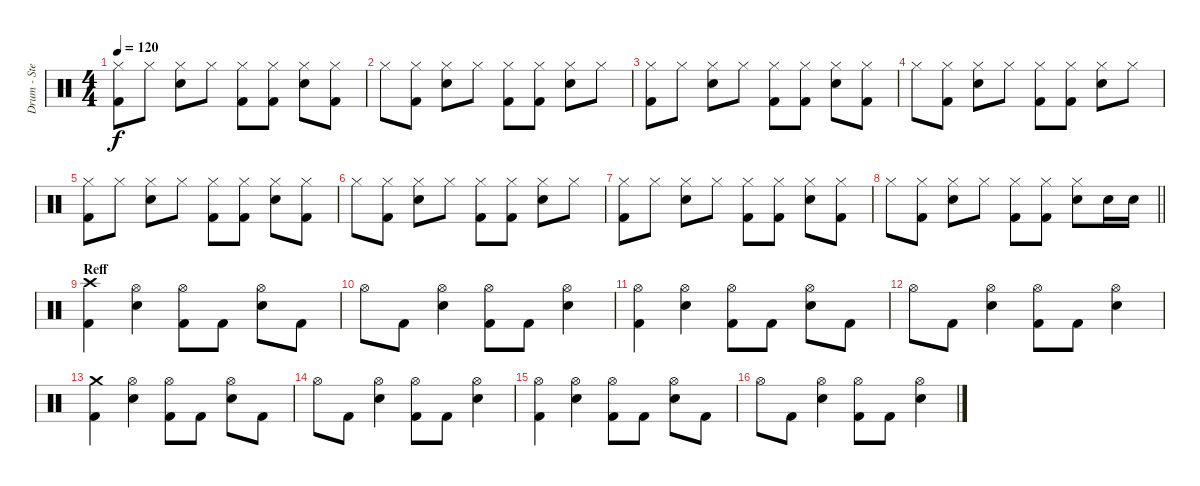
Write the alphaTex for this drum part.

\track ("Drum - Stevie Morley Item" "Drum - Ste") {instrument percussion}
\staff {score}
\articulation defaults
\ts (4 4)
\tempo 120
\clef neutral
\ks c
("Hi-Hat (closed)" "Kick (hit) 2").8{dy f} "Hi-Hat (closed)".8 ("Hi-Hat (closed)" "Snare (hit) 2").8 "Hi-Hat (closed)".8 ("Hi-Hat (closed)" "Kick (hit) 2").8 ("Hi-Hat (closed)" "Kick (hit) 2").8 ("Hi-Hat (closed)" "Snare (hit) 2").8 ("Hi-Hat (closed)" "Kick (hit) 2").8 |
"Hi-Hat (closed)".8 ("Hi-Hat (closed)" "Kick (hit) 2").8 ("Hi-Hat (closed)" "Snare (hit) 2").8 "Hi-Hat (closed)".8 ("Hi-Hat (closed)" "Kick (hit) 2").8 ("Hi-Hat (closed)" "Kick (hit) 2").8 ("Hi-Hat (closed)" "Snare (hit) 2").8 "Hi-Hat (closed)".8 |
("Hi-Hat (closed)" "Kick (hit) 2").8 "Hi-Hat (closed)".8 ("Hi-Hat (closed)" "Snare (hit) 2").8 "Hi-Hat (closed)".8 ("Hi-Hat (closed)" "Kick (hit) 2").8 ("Hi-Hat (closed)" "Kick (hit) 2").8 ("Hi-Hat (closed)" "Snare (hit) 2").8 ("Hi-Hat (closed)" "Kick (hit) 2").8 |
"Hi-Hat (closed)".8 ("Hi-Hat (closed)" "Kick (hit) 2").8 ("Hi-Hat (closed)" "Snare (hit) 2").8 "Hi-Hat (closed)".8 ("Hi-Hat (closed)" "Kick (hit) 2").8 ("Hi-Hat (closed)" "Kick (hit) 2").8 ("Hi-Hat (closed)" "Snare (hit) 2").8 "Hi-Hat (closed)".8 |
("Hi-Hat (closed)" "Kick (hit) 2").8 "Hi-Hat (closed)".8 ("Hi-Hat (closed)" "Snare (hit) 2").8 "Hi-Hat (closed)".8 ("Hi-Hat (closed)" "Kick (hit) 2").8 ("Hi-Hat (closed)" "Kick (hit) 2").8 ("Hi-Hat (closed)" "Snare (hit) 2").8 ("Hi-Hat (closed)" "Kick (hit) 2").8 |
"Hi-Hat (closed)".8 ("Hi-Hat (closed)" "Kick (hit) 2").8 ("Hi-Hat (closed)" "Snare (hit) 2").8 "Hi-Hat (closed)".8 ("Hi-Hat (closed)" "Kick (hit) 2").8 ("Hi-Hat (closed)" "Kick (hit) 2").8 ("Hi-Hat (closed)" "Snare (hit) 2").8 "Hi-Hat (closed)".8 |
("Hi-Hat (closed)" "Kick (hit) 2").8 "Hi-Hat (closed)".8 ("Hi-Hat (closed)" "Snare (hit) 2").8 "Hi-Hat (closed)".8 ("Hi-Hat (closed)" "Kick (hit) 2").8 ("Hi-Hat (closed)" "Kick (hit) 2").8 ("Hi-Hat (closed)" "Snare (hit) 2").8 ("Hi-Hat (closed)" "Kick (hit) 2").8 |
\barLineRight lightlight "Hi-Hat (closed)".8
("Hi-Hat (closed)" "Kick (hit) 2").8 ("Hi-Hat (closed)" "Snare (hit) 2").8 "Hi-Hat (closed)".8 ("Hi-Hat (closed)" "Kick (hit) 2").8 ("Hi-Hat (closed)" "Kick (hit) 2").8 ("Hi-Hat (closed)" "Snare (hit) 2").8 "Snare (hit) 2".16 "Snare (hit) 2".16 |
\section ("" "Reff")
("Crash high (hit)" "Kick (hit) 2").4 ("Hi-Hat (open)" "Snare (hit) 2").4 ("Hi-Hat (open)" "Kick (hit) 2").8 "Kick (hit) 2".8 ("Hi-Hat (open)" "Snare (hit) 2").8 "Kick (hit) 2".8 |
"Hi-Hat (open)".8 "Kick (hit) 2".8 ("Hi-Hat (open)" "Snare (hit) 2").4 ("Hi-Hat (open)" "Kick (hit) 2").8 "Kick (hit) 2".8 ("Hi-Hat (open)" "Snare (hit) 2").4 |
("Hi-Hat (open)" "Kick (hit) 2").4 ("Hi-Hat (open)" "Snare (hit) 2").4 ("Hi-Hat (open)" "Kick (hit) 2").8 "Kick (hit) 2".8 ("Hi-Hat (open)" "Snare (hit) 2").8 "Kick (hit) 2".8 |
"Hi-Hat (open)".8 "Kick (hit) 2".8 ("Hi-Hat (open)" "Snare (hit) 2").4 ("Hi-Hat (open)" "Kick (hit) 2").8 "Kick (hit) 2".8 ("Hi-Hat (open)" "Snare (hit) 2").4 |
("Crash medium (hit)" "Kick (hit) 2").4 ("Hi-Hat (open)" "Snare (hit) 2").4 ("Hi-Hat (open)" "Kick (hit) 2").8 "Kick (hit) 2".8 ("Hi-Hat (open)" "Snare (hit) 2").8 "Kick (hit) 2".8 |
"Hi-Hat (open)".8 "Kick (hit) 2".8 ("Hi-Hat (open)" "Snare (hit) 2").4 ("Hi-Hat (open)" "Kick (hit) 2").8 "Kick (hit) 2".8 ("Hi-Hat (open)" "Snare (hit) 2").4 |
("Hi-Hat (open)" "Kick (hit) 2").4 ("Hi-Hat (open)" "Snare (hit) 2").4 ("Hi-Hat (open)" "Kick (hit) 2").8 "Kick (hit) 2".8 ("Hi-Hat (open)" "Snare (hit) 2").8 "Kick (hit) 2".8 |
"Hi-Hat (open)".8 "Kick (hit) 2".8 ("Hi-Hat (open)" "Snare (hit) 2").4 ("Hi-Hat (open)" "Kick (hit) 2").8 "Kick (hit) 2".8 ("Hi-Hat (open)" "Snare (hit) 2").4
